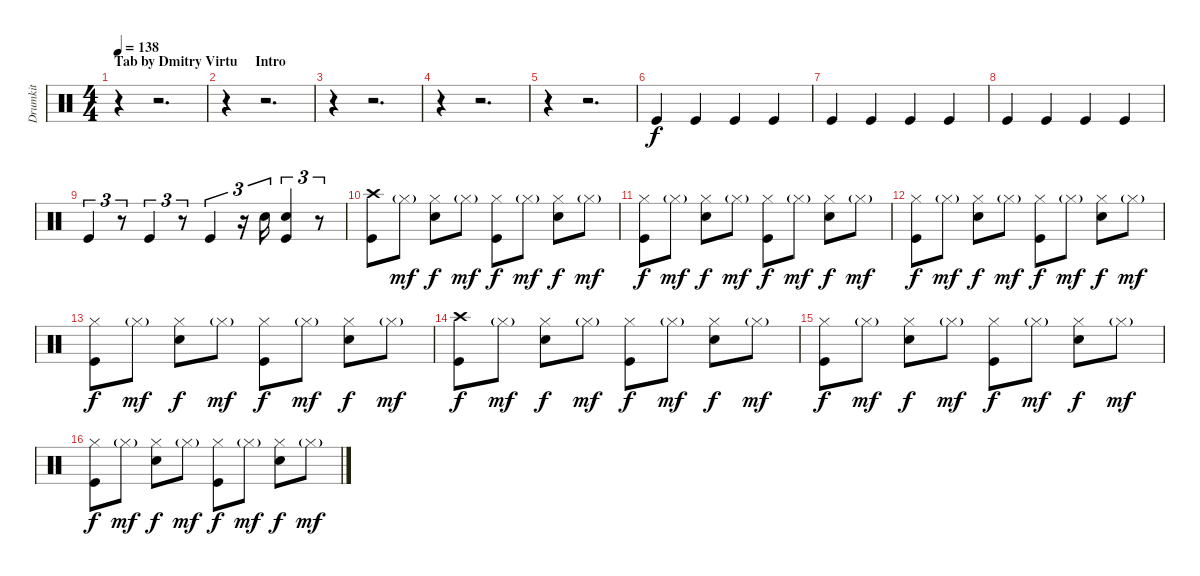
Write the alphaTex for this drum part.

\track ("Drumkit" "Drumkit") {instrument percussion}
\staff {score}
\articulation defaults
\ts (4 4)
\section ("" "Tab by Dmitry Virtu     Intro")
\tempo 138
\clef neutral
\ks c
r.4{dy f} r.2{d} |
r.4 r.2{d} |
r.4 r.2{d} |
r.4 r.2{d} |
r.4 r.2{d} |
"Kick (hit)".4 "Kick (hit)".4 "Kick (hit)".4 "Kick (hit)".4 |
"Kick (hit)".4 "Kick (hit)".4 "Kick (hit)".4 "Kick (hit)".4 |
"Kick (hit)".4 "Kick (hit)".4 "Kick (hit)".4 "Kick (hit)".4 |
"Kick (hit)".4{tu (3 2)} r.8{tu (3 2)} "Kick (hit)".4{tu (3 2)} r.8{tu (3 2)} "Kick (hit)".4{tu (3 2)} r.16{tu (3 2)} "Snare (hit) 2".16{tu (3 2)} ("Snare (hit) 2" "Kick (hit)").4{tu (3 2)} r.8{tu (3 2)} |
("Crash high (hit)" "Kick (hit)").8 "Hi-Hat (closed)"{g}.8{dy mf} ("Hi-Hat (closed)" "Snare (hit) 2").8{dy f} "Hi-Hat (closed)"{g}.8{dy mf} ("Hi-Hat (closed)" "Kick (hit)").8{dy f} "Hi-Hat (closed)"{g}.8{dy mf} ("Hi-Hat (closed)" "Snare (hit) 2").8{dy f} "Hi-Hat (closed)"{g}.8{dy mf} |
("Hi-Hat (closed)" "Kick (hit)").8{dy f} "Hi-Hat (closed)"{g}.8{dy mf} ("Hi-Hat (closed)" "Snare (hit) 2").8{dy f} "Hi-Hat (closed)"{g}.8{dy mf} ("Hi-Hat (closed)" "Kick (hit)").8{dy f} "Hi-Hat (closed)"{g}.8{dy mf} ("Hi-Hat (closed)" "Snare (hit) 2").8{dy f} "Hi-Hat (closed)"{g}.8{dy mf} |
("Hi-Hat (closed)" "Kick (hit)").8{dy f} "Hi-Hat (closed)"{g}.8{dy mf} ("Hi-Hat (closed)" "Snare (hit) 2").8{dy f} "Hi-Hat (closed)"{g}.8{dy mf} ("Hi-Hat (closed)" "Kick (hit)").8{dy f} "Hi-Hat (closed)"{g}.8{dy mf} ("Hi-Hat (closed)" "Snare (hit) 2").8{dy f} "Hi-Hat (closed)"{g}.8{dy mf} |
("Hi-Hat (closed)" "Kick (hit)").8{dy f} "Hi-Hat (closed)"{g}.8{dy mf} ("Hi-Hat (closed)" "Snare (hit) 2").8{dy f} "Hi-Hat (closed)"{g}.8{dy mf} ("Hi-Hat (closed)" "Kick (hit)").8{dy f} "Hi-Hat (closed)"{g}.8{dy mf} ("Hi-Hat (closed)" "Snare (hit) 2").8{dy f} "Hi-Hat (closed)"{g}.8{dy mf} |
("Crash high (hit)" "Kick (hit)").8{dy f} "Hi-Hat (closed)"{g}.8{dy mf} ("Hi-Hat (closed)" "Snare (hit) 2").8{dy f} "Hi-Hat (closed)"{g}.8{dy mf} ("Hi-Hat (closed)" "Kick (hit)").8{dy f} "Hi-Hat (closed)"{g}.8{dy mf} ("Hi-Hat (closed)" "Snare (hit) 2").8{dy f} "Hi-Hat (closed)"{g}.8{dy mf} |
("Hi-Hat (closed)" "Kick (hit)").8{dy f} "Hi-Hat (closed)"{g}.8{dy mf} ("Hi-Hat (closed)" "Snare (hit) 2").8{dy f} "Hi-Hat (closed)"{g}.8{dy mf} ("Hi-Hat (closed)" "Kick (hit)").8{dy f} "Hi-Hat (closed)"{g}.8{dy mf} ("Hi-Hat (closed)" "Snare (hit) 2").8{dy f} "Hi-Hat (closed)"{g}.8{dy mf} |
("Hi-Hat (closed)" "Kick (hit)").8{dy f} "Hi-Hat (closed)"{g}.8{dy mf} ("Hi-Hat (closed)" "Snare (hit) 2").8{dy f} "Hi-Hat (closed)"{g}.8{dy mf} ("Hi-Hat (closed)" "Kick (hit)").8{dy f} "Hi-Hat (closed)"{g}.8{dy mf} ("Hi-Hat (closed)" "Snare (hit) 2").8{dy f} "Hi-Hat (closed)"{g}.8{dy mf}
